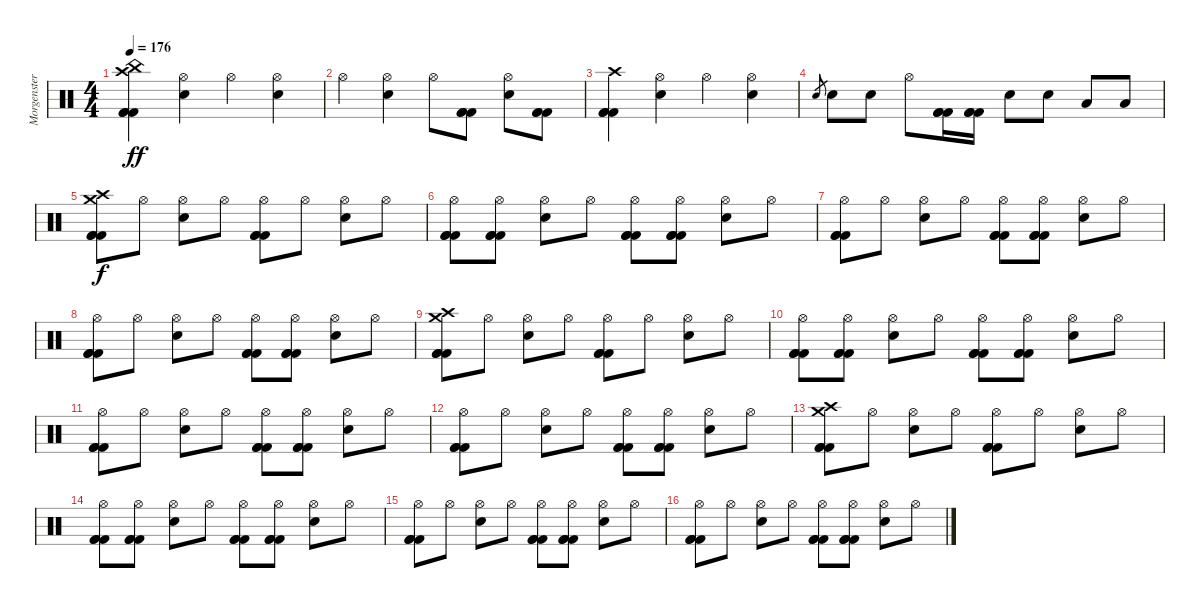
\track ("Morgenstern (Schlagzeug)" "Morgenster") {instrument percussion}
\staff {score}
\articulation defaults
\ts (4 4)
\tempo 176
\clef neutral
\ks c
("Crash high (hit)" "China (hit)" "Kick (hit) 2" "Kick (hit) 2" "Kick (hit) 2").4{dy ff} ("Hi-Hat (open)" "Snare (hit) 2").4 "Hi-Hat (open)".4 ("Hi-Hat (open)" "Snare (hit) 2").4 |
"Hi-Hat (open)".4 ("Hi-Hat (open)" "Snare (hit) 2").4 "Hi-Hat (open)".8 ("Kick (hit) 2" "Kick (hit) 2" "Kick (hit) 2").8 ("Hi-Hat (open)" "Snare (hit) 2").8 ("Kick (hit) 2" "Kick (hit) 2" "Kick (hit) 2").8 |
("Crash high (hit)" "Kick (hit) 2" "Kick (hit) 2" "Kick (hit) 2").4 ("Hi-Hat (open)" "Snare (hit) 2").4 "Hi-Hat (open)".4 ("Hi-Hat (open)" "Snare (hit) 2").4 |
"Snare (hit) 2".8{gr} "Snare (hit) 2".8 "Snare (hit) 2".8 "Hi-Hat (open)".8 ("Kick (hit) 2" "Kick (hit) 2" "Kick (hit) 2").16 ("Kick (hit) 2" "Kick (hit) 2" "Kick (hit) 2").16 "Snare (hit) 2".8 "Snare (hit) 2".8 "Low Tom (hit)".8 "Low Tom (hit)".8 |
("Crash high (hit)" "Crash medium (hit)" "Kick (hit) 2" "Kick (hit) 2" "Kick (hit) 2").8{dy f} "Hi-Hat (open)".8 ("Hi-Hat (open)" "Snare (hit) 2").8 "Hi-Hat (open)".8 ("Hi-Hat (open)" "Kick (hit) 2" "Kick (hit) 2" "Kick (hit) 2").8 "Hi-Hat (open)".8 ("Hi-Hat (open)" "Snare (hit) 2").8 "Hi-Hat (open)".8 |
("Hi-Hat (open)" "Kick (hit) 2" "Kick (hit) 2" "Kick (hit) 2").8 ("Hi-Hat (open)" "Kick (hit) 2" "Kick (hit) 2" "Kick (hit) 2").8 ("Hi-Hat (open)" "Snare (hit) 2").8 "Hi-Hat (open)".8 ("Hi-Hat (open)" "Kick (hit) 2" "Kick (hit) 2" "Kick (hit) 2").8 ("Hi-Hat (open)" "Kick (hit) 2" "Kick (hit) 2" "Kick (hit) 2").8 ("Hi-Hat (open)" "Snare (hit) 2").8 "Hi-Hat (open)".8 |
("Hi-Hat (open)" "Kick (hit) 2" "Kick (hit) 2" "Kick (hit) 2").8 "Hi-Hat (open)".8 ("Hi-Hat (open)" "Snare (hit) 2").8 "Hi-Hat (open)".8 ("Hi-Hat (open)" "Kick (hit) 2" "Kick (hit) 2" "Kick (hit) 2").8 ("Hi-Hat (open)" "Kick (hit) 2" "Kick (hit) 2" "Kick (hit) 2").8 ("Hi-Hat (open)" "Snare (hit) 2").8 "Hi-Hat (open)".8 |
("Hi-Hat (open)" "Kick (hit) 2" "Kick (hit) 2" "Kick (hit) 2").8 "Hi-Hat (open)".8 ("Hi-Hat (open)" "Snare (hit) 2").8 "Hi-Hat (open)".8 ("Hi-Hat (open)" "Kick (hit) 2" "Kick (hit) 2" "Kick (hit) 2").8 ("Hi-Hat (open)" "Kick (hit) 2" "Kick (hit) 2" "Kick (hit) 2").8 ("Hi-Hat (open)" "Snare (hit) 2").8 "Hi-Hat (open)".8 |
("Crash high (hit)" "Crash medium (hit)" "Kick (hit) 2" "Kick (hit) 2" "Kick (hit) 2").8 "Hi-Hat (open)".8 ("Hi-Hat (open)" "Snare (hit) 2").8 "Hi-Hat (open)".8 ("Hi-Hat (open)" "Kick (hit) 2" "Kick (hit) 2" "Kick (hit) 2").8 "Hi-Hat (open)".8 ("Hi-Hat (open)" "Snare (hit) 2").8 "Hi-Hat (open)".8 |
("Hi-Hat (open)" "Kick (hit) 2" "Kick (hit) 2" "Kick (hit) 2").8 ("Hi-Hat (open)" "Kick (hit) 2" "Kick (hit) 2" "Kick (hit) 2").8 ("Hi-Hat (open)" "Snare (hit) 2").8 "Hi-Hat (open)".8 ("Hi-Hat (open)" "Kick (hit) 2" "Kick (hit) 2" "Kick (hit) 2").8 ("Hi-Hat (open)" "Kick (hit) 2" "Kick (hit) 2" "Kick (hit) 2").8 ("Hi-Hat (open)" "Snare (hit) 2").8 "Hi-Hat (open)".8 |
("Hi-Hat (open)" "Kick (hit) 2" "Kick (hit) 2" "Kick (hit) 2").8 "Hi-Hat (open)".8 ("Hi-Hat (open)" "Snare (hit) 2").8 "Hi-Hat (open)".8 ("Hi-Hat (open)" "Kick (hit) 2" "Kick (hit) 2" "Kick (hit) 2").8 ("Hi-Hat (open)" "Kick (hit) 2" "Kick (hit) 2" "Kick (hit) 2").8 ("Hi-Hat (open)" "Snare (hit) 2").8 "Hi-Hat (open)".8 |
("Hi-Hat (open)" "Kick (hit) 2" "Kick (hit) 2" "Kick (hit) 2").8 "Hi-Hat (open)".8 ("Hi-Hat (open)" "Snare (hit) 2").8 "Hi-Hat (open)".8 ("Hi-Hat (open)" "Kick (hit) 2" "Kick (hit) 2" "Kick (hit) 2").8 ("Hi-Hat (open)" "Kick (hit) 2" "Kick (hit) 2" "Kick (hit) 2").8 ("Hi-Hat (open)" "Snare (hit) 2").8 "Hi-Hat (open)".8 |
("Crash high (hit)" "Crash medium (hit)" "Kick (hit) 2" "Kick (hit) 2" "Kick (hit) 2").8 "Hi-Hat (open)".8 ("Hi-Hat (open)" "Snare (hit) 2").8 "Hi-Hat (open)".8 ("Hi-Hat (open)" "Kick (hit) 2" "Kick (hit) 2" "Kick (hit) 2").8 "Hi-Hat (open)".8 ("Hi-Hat (open)" "Snare (hit) 2").8 "Hi-Hat (open)".8 |
("Hi-Hat (open)" "Kick (hit) 2" "Kick (hit) 2" "Kick (hit) 2").8 ("Hi-Hat (open)" "Kick (hit) 2" "Kick (hit) 2" "Kick (hit) 2").8 ("Hi-Hat (open)" "Snare (hit) 2").8 "Hi-Hat (open)".8 ("Hi-Hat (open)" "Kick (hit) 2" "Kick (hit) 2" "Kick (hit) 2").8 ("Hi-Hat (open)" "Kick (hit) 2" "Kick (hit) 2" "Kick (hit) 2").8 ("Hi-Hat (open)" "Snare (hit) 2").8 "Hi-Hat (open)".8 |
("Hi-Hat (open)" "Kick (hit) 2" "Kick (hit) 2" "Kick (hit) 2").8 "Hi-Hat (open)".8 ("Hi-Hat (open)" "Snare (hit) 2").8 "Hi-Hat (open)".8 ("Hi-Hat (open)" "Kick (hit) 2" "Kick (hit) 2" "Kick (hit) 2").8 ("Hi-Hat (open)" "Kick (hit) 2" "Kick (hit) 2" "Kick (hit) 2").8 ("Hi-Hat (open)" "Snare (hit) 2").8 "Hi-Hat (open)".8 |
("Hi-Hat (open)" "Kick (hit) 2" "Kick (hit) 2" "Kick (hit) 2").8 "Hi-Hat (open)".8 ("Hi-Hat (open)" "Snare (hit) 2").8 "Hi-Hat (open)".8 ("Hi-Hat (open)" "Kick (hit) 2" "Kick (hit) 2" "Kick (hit) 2").8 ("Hi-Hat (open)" "Kick (hit) 2" "Kick (hit) 2" "Kick (hit) 2").8 ("Hi-Hat (open)" "Snare (hit) 2").8 "Hi-Hat (open)".8
